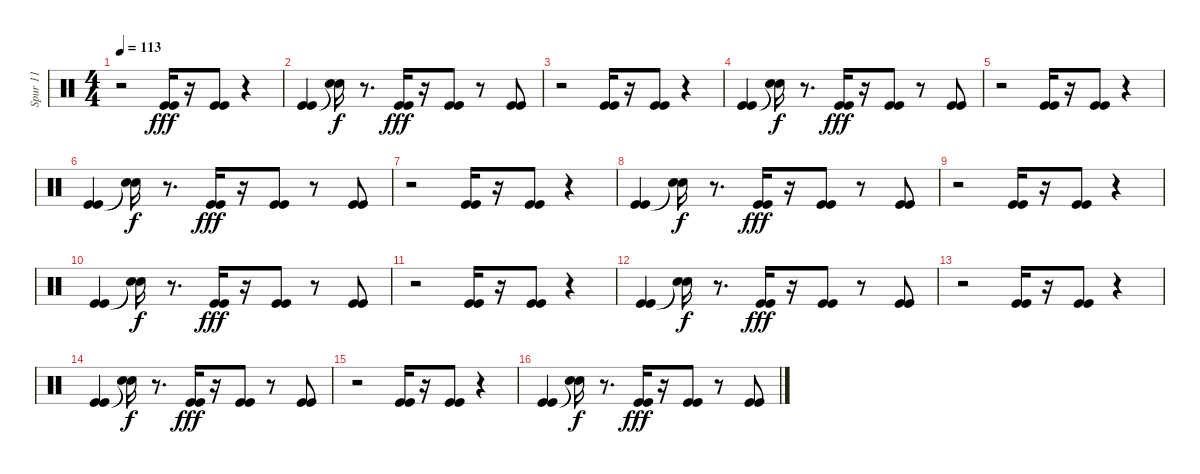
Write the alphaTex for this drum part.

\track ("Spur 11" "Spur 11") {instrument percussion}
\staff {score}
\articulation defaults
\ts (4 4)
\tempo 113
\clef neutral
\ks c
r.2{dy fff} ("Kick (hit)" "Kick (hit)").16{volume 12} r.16 ("Kick (hit)" "Kick (hit)").8 r.4 |
("Kick (hit)" "Kick (hit)").4 ("Snare (hit)"{t} "Snare (hit)"{t}).16{dy f} r.8{d} ("Kick (hit)" "Kick (hit)").16{dy fff} r.16 ("Kick (hit)" "Kick (hit)").8 r.8 ("Kick (hit)" "Kick (hit)").8 |
r.2 ("Kick (hit)" "Kick (hit)").16{volume 12} r.16 ("Kick (hit)" "Kick (hit)").8 r.4 |
("Kick (hit)" "Kick (hit)").4 ("Snare (hit)"{t} "Snare (hit)"{t}).16{dy f} r.8{d} ("Kick (hit)" "Kick (hit)").16{dy fff} r.16 ("Kick (hit)" "Kick (hit)").8 r.8 ("Kick (hit)" "Kick (hit)").8 |
r.2 ("Kick (hit)" "Kick (hit)").16 r.16 ("Kick (hit)" "Kick (hit)").8 r.4 |
("Kick (hit)" "Kick (hit)").4 ("Snare (hit)"{t} "Snare (hit)"{t}).16{dy f} r.8{d} ("Kick (hit)" "Kick (hit)").16{dy fff} r.16 ("Kick (hit)" "Kick (hit)").8 r.8 ("Kick (hit)" "Kick (hit)").8 |
r.2 ("Kick (hit)" "Kick (hit)").16 r.16 ("Kick (hit)" "Kick (hit)").8 r.4 |
("Kick (hit)" "Kick (hit)").4 ("Snare (hit)"{t} "Snare (hit)"{t}).16{dy f} r.8{d} ("Kick (hit)" "Kick (hit)").16{dy fff balance 8} r.16 ("Kick (hit)" "Kick (hit)").8 r.8 ("Kick (hit)" "Kick (hit)").8 |
r.2 ("Kick (hit)" "Kick (hit)").16 r.16 ("Kick (hit)" "Kick (hit)").8 r.4 |
("Kick (hit)" "Kick (hit)").4 ("Snare (hit)"{t} "Snare (hit)"{t}).16{dy f} r.8{d} ("Kick (hit)" "Kick (hit)").16{dy fff} r.16 ("Kick (hit)" "Kick (hit)").8 r.8 ("Kick (hit)" "Kick (hit)").8 |
r.2 ("Kick (hit)" "Kick (hit)").16 r.16 ("Kick (hit)" "Kick (hit)").8 r.4 |
("Kick (hit)" "Kick (hit)").4 ("Snare (hit)"{t} "Snare (hit)"{t}).16{dy f} r.8{d} ("Kick (hit)" "Kick (hit)").16{dy fff} r.16 ("Kick (hit)" "Kick (hit)").8 r.8 ("Kick (hit)" "Kick (hit)").8 |
r.2 ("Kick (hit)" "Kick (hit)").16 r.16 ("Kick (hit)" "Kick (hit)").8 r.4 |
("Kick (hit)" "Kick (hit)").4 ("Snare (hit)"{t} "Snare (hit)"{t}).16{dy f} r.8{d} ("Kick (hit)" "Kick (hit)").16{dy fff} r.16 ("Kick (hit)" "Kick (hit)").8 r.8 ("Kick (hit)" "Kick (hit)").8 |
r.2 ("Kick (hit)" "Kick (hit)").16 r.16 ("Kick (hit)" "Kick (hit)").8 r.4 |
("Kick (hit)" "Kick (hit)").4 ("Snare (hit)"{t} "Snare (hit)"{t}).16{dy f} r.8{d} ("Kick (hit)" "Kick (hit)").16{dy fff balance 8} r.16 ("Kick (hit)" "Kick (hit)").8 r.8 ("Kick (hit)" "Kick (hit)").8
